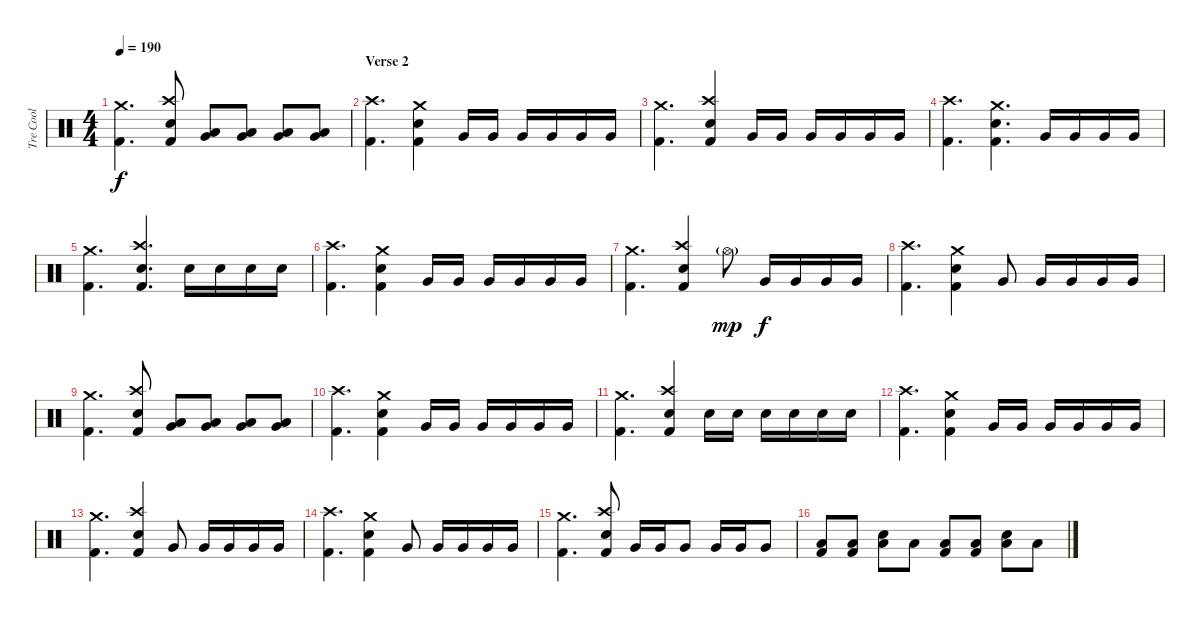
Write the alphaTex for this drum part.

\track ("Tre Cool" "Tre Cool") {instrument percussion}
\staff {score}
\articulation defaults
\ts (4 4)
\tempo 190
\clef neutral
\ks c
("Crash medium (hit)" "Kick (hit) 2").4{d dy f} ("Crash high (hit)" "Snare (hit) 2" "Kick (hit) 2").8 ("Low Tom (hit)" "Very Low Tom (hit)").8 ("Low Tom (hit)" "Very Low Tom (hit)").8 ("Low Tom (hit)" "Very Low Tom (hit)").8 ("Low Tom (hit)" "Very Low Tom (hit)").8 |
\section ("" "Verse 2")
("Crash high (hit)" "Kick (hit) 2").4{d} ("Crash medium (hit)" "Snare (hit) 2" "Kick (hit) 2").4 "Very Low Tom (hit)".16 "Very Low Tom (hit)".16 "Very Low Tom (hit)".16 "Very Low Tom (hit)".16 "Very Low Tom (hit)".16 "Very Low Tom (hit)".16 |
("Crash medium (hit)" "Kick (hit) 2").4{d} ("Crash high (hit)" "Snare (hit) 2" "Kick (hit) 2").4 "Very Low Tom (hit)".16 "Very Low Tom (hit)".16 "Very Low Tom (hit)".16 "Very Low Tom (hit)".16 "Very Low Tom (hit)".16 "Very Low Tom (hit)".16 |
("Crash high (hit)" "Kick (hit) 2").4{d} ("Crash medium (hit)" "Snare (hit) 2" "Kick (hit) 2").4{d} "Very Low Tom (hit)".16 "Very Low Tom (hit)".16 "Very Low Tom (hit)".16 "Very Low Tom (hit)".16 |
("Crash medium (hit)" "Kick (hit) 2").4{d} ("Crash high (hit)" "Snare (hit) 2" "Kick (hit) 2").4{d} "Snare (hit) 2".16 "Snare (hit) 2".16 "Snare (hit) 2".16 "Snare (hit) 2".16 |
("Crash high (hit)" "Kick (hit) 2").4{d} ("Crash medium (hit)" "Snare (hit) 2" "Kick (hit) 2").4 "Very Low Tom (hit)".16 "Very Low Tom (hit)".16 "Very Low Tom (hit)".16 "Very Low Tom (hit)".16 "Very Low Tom (hit)".16 "Very Low Tom (hit)".16 |
("Crash medium (hit)" "Kick (hit) 2").4{d} ("Crash high (hit)" "Snare (hit) 2" "Kick (hit) 2").4 "Hi-Hat (open)"{g}.8{dy mp} "Very Low Tom (hit)".16{dy f} "Very Low Tom (hit)".16 "Very Low Tom (hit)".16 "Very Low Tom (hit)".16 |
("Crash high (hit)" "Kick (hit) 2").4{d} ("Crash medium (hit)" "Snare (hit) 2" "Kick (hit) 2").4 "Very Low Tom (hit)".8 "Very Low Tom (hit)".16 "Very Low Tom (hit)".16 "Very Low Tom (hit)".16 "Very Low Tom (hit)".16 |
("Crash medium (hit)" "Kick (hit) 2").4{d} ("Crash high (hit)" "Snare (hit) 2" "Kick (hit) 2").8 ("Low Tom (hit)" "Very Low Tom (hit)").8 ("Low Tom (hit)" "Very Low Tom (hit)").8 ("Low Tom (hit)" "Very Low Tom (hit)").8 ("Low Tom (hit)" "Very Low Tom (hit)").8 |
("Crash high (hit)" "Kick (hit) 2").4{d} ("Crash medium (hit)" "Snare (hit) 2" "Kick (hit) 2").4 "Very Low Tom (hit)".16 "Very Low Tom (hit)".16 "Very Low Tom (hit)".16 "Very Low Tom (hit)".16 "Very Low Tom (hit)".16 "Very Low Tom (hit)".16 |
("Crash medium (hit)" "Kick (hit) 2").4{d} ("Crash high (hit)" "Snare (hit) 2" "Kick (hit) 2").4 "Snare (hit) 2".16 "Snare (hit) 2".16 "Snare (hit) 2".16 "Snare (hit) 2".16 "Snare (hit) 2".16 "Snare (hit) 2".16 |
("Crash high (hit)" "Kick (hit) 2").4{d} ("Crash medium (hit)" "Snare (hit) 2" "Kick (hit) 2").4 "Very Low Tom (hit)".16 "Very Low Tom (hit)".16 "Very Low Tom (hit)".16 "Very Low Tom (hit)".16 "Very Low Tom (hit)".16 "Very Low Tom (hit)".16 |
("Crash medium (hit)" "Kick (hit) 2").4{d} ("Crash high (hit)" "Snare (hit) 2" "Kick (hit) 2").4 "Very Low Tom (hit)".8 "Very Low Tom (hit)".16 "Very Low Tom (hit)".16 "Very Low Tom (hit)".16 "Very Low Tom (hit)".16 |
("Crash high (hit)" "Kick (hit) 2").4{d} ("Crash medium (hit)" "Snare (hit) 2" "Kick (hit) 2").4 "Very Low Tom (hit)".8 "Very Low Tom (hit)".16 "Very Low Tom (hit)".16 "Very Low Tom (hit)".16 "Very Low Tom (hit)".16 |
("Crash medium (hit)" "Kick (hit) 2").4{d} ("Crash high (hit)" "Snare (hit) 2" "Kick (hit) 2").8 "Very Low Tom (hit)".16 "Very Low Tom (hit)".16 "Very Low Tom (hit)".8 "Very Low Tom (hit)".16 "Very Low Tom (hit)".16 "Very Low Tom (hit)".8 |
("Low Tom (hit)" "Kick (hit) 2").8 ("Low Tom (hit)" "Kick (hit) 2").8 ("Low Tom (hit)" "Snare (hit) 2").8 "Low Tom (hit)".8 ("Low Tom (hit)" "Kick (hit) 2").8 ("Low Tom (hit)" "Kick (hit) 2").8 ("Low Tom (hit)" "Snare (hit) 2").8 "Low Tom (hit)".8
